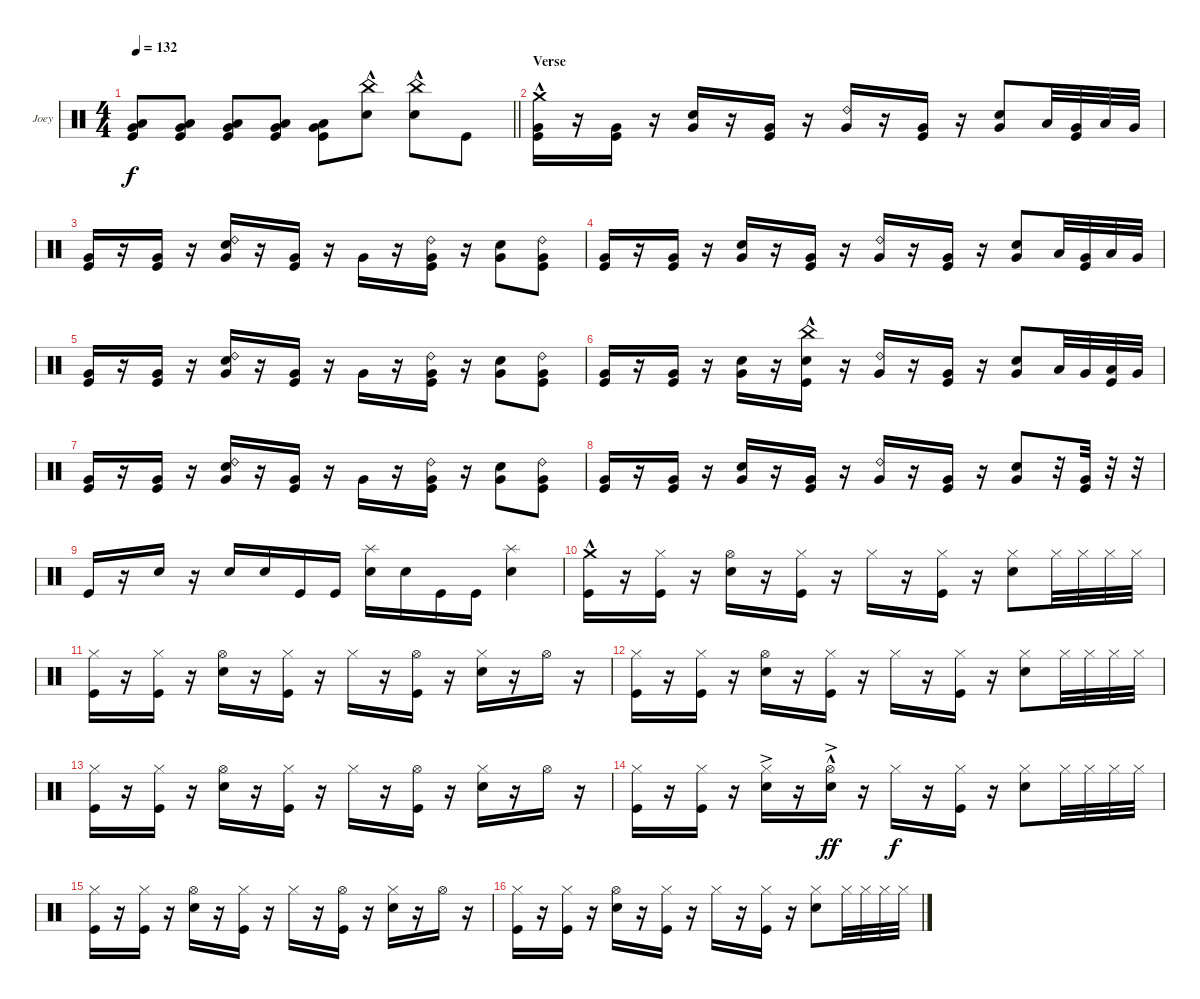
\bracketExtendMode groupsimilarinstruments
\firstSystemTrackNameOrientation horizontal
\otherSystemsTrackNameOrientation horizontal
\track ("Joey Jordison" "Joey") {instrument percussion}
\staff {score}
\articulation defaults
\ts (4 4)
\tempo 132
\clef neutral
\barLineRight lightlight
\ks c
("Very Low Tom (hit)" "Kick (hit)" "Low Tom (hit)").8{dy f} ("Very Low Tom (hit)" "Kick (hit)" "Low Tom (hit)").8 ("Very Low Tom (hit)" "Kick (hit)" "Low Tom (hit)").8 ("Very Low Tom (hit)" "Kick (hit)" "Low Tom (hit)").8 ("Very Low Tom (hit)" "Kick (hit)" "Low Tom (hit)").8 ("Snare (hit) 2" "China (hit)"{hac}).8 ("Snare (hit) 2" "China (hit)"{hac}).8 "Kick (hit)".8 |
\section ("" "Verse")
("Crash medium (hit)"{hac} "Very Low Tom (hit)" "Kick (hit)").16 r.16 ("Very Low Tom (hit)" "Kick (hit)").16 r.16 ("Very Low Tom (hit)" "Snare (hit) 2").16 r.16 ("Very Low Tom (hit)" "Kick (hit)").16 r.16 ("Ride (bell) 2" "Very Low Tom (hit)").16 r.16 ("Very Low Tom (hit)" "Kick (hit)").16 r.16 ("Very Low Tom (hit)" "Snare (hit) 2").8 "Low Tom (hit)".32 ("Very Low Tom (hit)" "Kick (hit)").32 "Low Tom (hit)".32 "Very Low Tom (hit)".32 |
("Very Low Tom (hit)" "Kick (hit)").16 r.16 ("Very Low Tom (hit)" "Kick (hit)").16 r.16 ("Ride (bell) 2" "Very Low Tom (hit)" "Snare (hit) 2").16 r.16 ("Very Low Tom (hit)" "Kick (hit)").16 r.16 "Very Low Tom (hit)".16 r.16 ("Ride (bell) 2" "Very Low Tom (hit)" "Kick (hit)").16 r.16 ("Very Low Tom (hit)" "Snare (hit) 2").8 ("Ride (bell) 2" "Very Low Tom (hit)" "Kick (hit)").8 |
("Very Low Tom (hit)" "Kick (hit)").16 r.16 ("Very Low Tom (hit)" "Kick (hit)").16 r.16 ("Very Low Tom (hit)" "Snare (hit) 2").16 r.16 ("Very Low Tom (hit)" "Kick (hit)").16 r.16 ("Ride (bell) 2" "Very Low Tom (hit)").16 r.16 ("Very Low Tom (hit)" "Kick (hit)").16 r.16 ("Very Low Tom (hit)" "Snare (hit) 2").8 "Low Tom (hit)".32 ("Very Low Tom (hit)" "Kick (hit)").32 "Low Tom (hit)".32 "Very Low Tom (hit)".32 |
("Very Low Tom (hit)" "Kick (hit)").16 r.16 ("Very Low Tom (hit)" "Kick (hit)").16 r.16 ("Ride (bell) 2" "Very Low Tom (hit)" "Snare (hit) 2").16 r.16 ("Very Low Tom (hit)" "Kick (hit)").16 r.16 "Very Low Tom (hit)".16 r.16 ("Ride (bell) 2" "Very Low Tom (hit)" "Kick (hit)").16 r.16 ("Very Low Tom (hit)" "Snare (hit) 2").8 ("Ride (bell) 2" "Very Low Tom (hit)" "Kick (hit)").8 |
("Very Low Tom (hit)" "Kick (hit)").16 r.16 ("Very Low Tom (hit)" "Kick (hit)").16 r.16 ("Very Low Tom (hit)" "Snare (hit) 2").16 r.16 ("China (hit)"{hac} "Snare (hit) 2" "Kick (hit)").16 r.16 ("Ride (bell) 2" "Very Low Tom (hit)").16 r.16 ("Very Low Tom (hit)" "Kick (hit)").16 r.16 ("Very Low Tom (hit)" "Snare (hit) 2").8 "Low Tom (hit)".32 "Very Low Tom (hit)".32 ("Low Tom (hit)" "Kick (hit)").32 "Very Low Tom (hit)".32 |
("Very Low Tom (hit)" "Kick (hit)").16 r.16 ("Very Low Tom (hit)" "Kick (hit)").16 r.16 ("Ride (bell) 2" "Very Low Tom (hit)" "Snare (hit) 2").16 r.16 ("Very Low Tom (hit)" "Kick (hit)").16 r.16 "Very Low Tom (hit)".16 r.16 ("Ride (bell) 2" "Very Low Tom (hit)" "Kick (hit)").16 r.16 ("Very Low Tom (hit)" "Snare (hit) 2").8 ("Ride (bell) 2" "Very Low Tom (hit)" "Kick (hit)").8 |
("Very Low Tom (hit)" "Kick (hit)").16 r.16 ("Very Low Tom (hit)" "Kick (hit)").16 r.16 ("Very Low Tom (hit)" "Snare (hit) 2").16 r.16 ("Very Low Tom (hit)" "Kick (hit)").16 r.16 ("Ride (bell) 2" "Very Low Tom (hit)").16 r.16 ("Very Low Tom (hit)" "Kick (hit)").16 r.16 ("Very Low Tom (hit)" "Snare (hit) 2").8 r.32 ("Very Low Tom (hit)" "Kick (hit)").32 r.32 r.32 |
"Kick (hit)".16 r.16 "Snare (hit) 2".16 r.16 "Snare (hit) 2".16 "Snare (hit) 2".16 "Kick (hit)".16 "Kick (hit)".16 ("Splash (hit)" "Snare (hit) 2").16 "Snare (hit) 2".16 "Kick (hit)".16 "Kick (hit)".16 ("Splash (hit)" "Snare (hit) 2").4 |
("Crash medium (hit)"{hac} "Kick (hit)").16 r.16 ("Hi-Hat (closed)" "Kick (hit)").16 r.16 ("Hi-Hat (open)" "Snare (hit) 2").16 r.16 ("Hi-Hat (closed)" "Kick (hit)").16 r.16 "Hi-Hat (closed)".16 r.16 ("Hi-Hat (closed)" "Kick (hit)").16 r.16 ("Hi-Hat (closed)" "Snare (hit) 2").8 "Hi-Hat (closed)".32 "Hi-Hat (closed)".32 "Hi-Hat (closed)".32 "Hi-Hat (closed)".32 |
("Hi-Hat (closed)" "Kick (hit)").16 r.16 ("Hi-Hat (closed)" "Kick (hit)").16 r.16 ("Hi-Hat (open)" "Snare (hit) 2").16 r.16 ("Hi-Hat (closed)" "Kick (hit)").16 r.16 "Hi-Hat (closed)".16 r.16 ("Hi-Hat (open)" "Kick (hit)").16 r.16 ("Hi-Hat (closed)" "Snare (hit) 2").16 r.16 "Hi-Hat (open)".16 r.16 |
("Hi-Hat (closed)" "Kick (hit)").16 r.16 ("Hi-Hat (closed)" "Kick (hit)").16 r.16 ("Hi-Hat (open)" "Snare (hit) 2").16 r.16 ("Hi-Hat (closed)" "Kick (hit)").16 r.16 "Hi-Hat (closed)".16 r.16 ("Hi-Hat (closed)" "Kick (hit)").16 r.16 ("Hi-Hat (closed)" "Snare (hit) 2").8 "Hi-Hat (closed)".32 "Hi-Hat (closed)".32 "Hi-Hat (closed)".32 "Hi-Hat (closed)".32 |
("Hi-Hat (closed)" "Kick (hit)").16 r.16 ("Hi-Hat (closed)" "Kick (hit)").16 r.16 ("Hi-Hat (open)" "Snare (hit) 2").16 r.16 ("Hi-Hat (closed)" "Kick (hit)").16 r.16 "Hi-Hat (closed)".16 r.16 ("Hi-Hat (open)" "Kick (hit)").16 r.16 ("Hi-Hat (closed)" "Snare (hit) 2").16 r.16 "Hi-Hat (open)".16 r.16 |
("Hi-Hat (closed)" "Kick (hit)").16 r.16 ("Hi-Hat (closed)" "Kick (hit)").16 r.16 ("Hi-Hat (closed)"{ac} "Snare (hit) 2"{ac}).16 r.16 ("Hi-Hat (open)"{hac} "Snare (hit) 2"{ac}).16{dy ff} r.16 "Hi-Hat (closed)".16{dy f} r.16 ("Hi-Hat (closed)" "Kick (hit)").16 r.16 ("Hi-Hat (closed)" "Snare (hit) 2").8 "Hi-Hat (closed)".32 "Hi-Hat (closed)".32 "Hi-Hat (closed)".32 "Hi-Hat (closed)".32 |
("Hi-Hat (closed)" "Kick (hit)").16 r.16 ("Hi-Hat (closed)" "Kick (hit)").16 r.16 ("Hi-Hat (open)" "Snare (hit) 2").16 r.16 ("Hi-Hat (closed)" "Kick (hit)").16 r.16 "Hi-Hat (closed)".16 r.16 ("Hi-Hat (open)" "Kick (hit)").16 r.16 ("Hi-Hat (closed)" "Snare (hit) 2").16 r.16 "Hi-Hat (open)".16 r.16 |
("Hi-Hat (closed)" "Kick (hit)").16 r.16 ("Hi-Hat (closed)" "Kick (hit)").16 r.16 ("Hi-Hat (open)" "Snare (hit) 2").16 r.16 ("Hi-Hat (closed)" "Kick (hit)").16 r.16 "Hi-Hat (closed)".16 r.16 ("Hi-Hat (closed)" "Kick (hit)").16 r.16 ("Hi-Hat (closed)" "Snare (hit) 2").8 "Hi-Hat (closed)".32 "Hi-Hat (closed)".32 "Hi-Hat (closed)".32 "Hi-Hat (closed)".32
